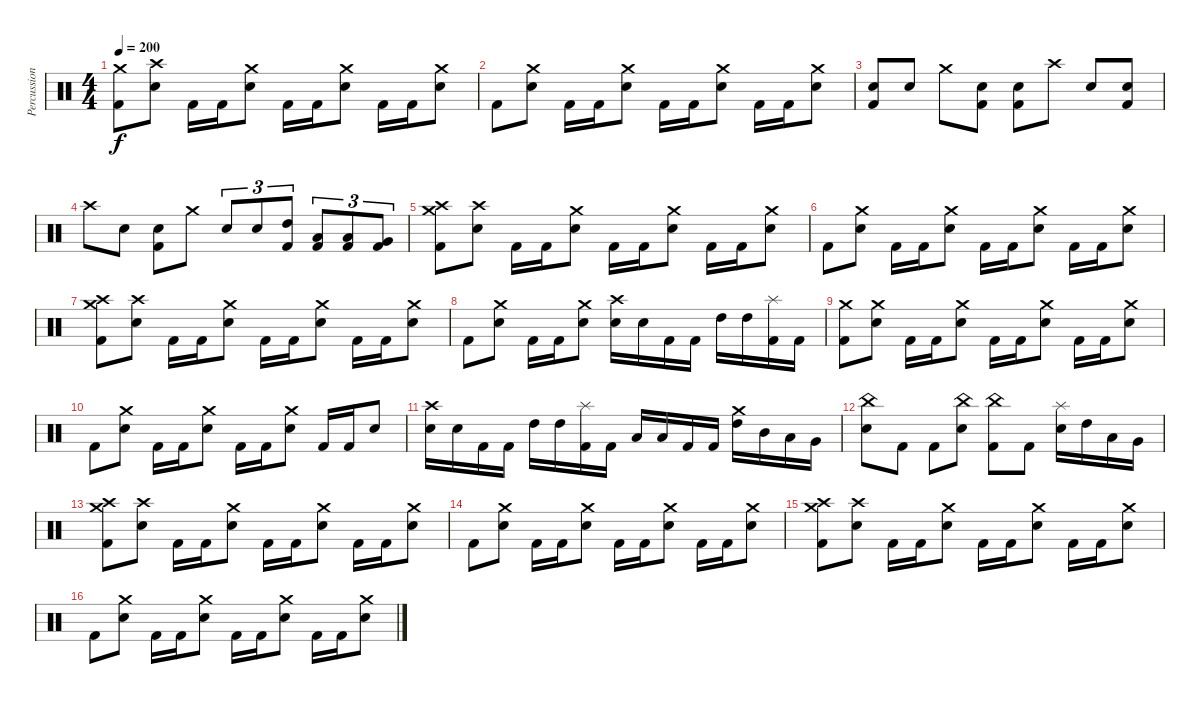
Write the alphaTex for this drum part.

\track ("Percussion" "Percussion") {instrument percussion}
\staff {score}
\articulation defaults
\ts (4 4)
\tempo 200
\clef neutral
\ks c
("Kick (hit) 2" "Crash medium (hit)").8{dy f} ("Electric Snare (hit)" "Crash high (hit)").8 "Kick (hit) 2".16 "Kick (hit) 2".16 ("Crash medium (hit)" "Electric Snare (hit)").8 "Kick (hit) 2".16 "Kick (hit) 2".16 ("Crash medium (hit)" "Electric Snare (hit)").8 "Kick (hit) 2".16 "Kick (hit) 2".16 ("Crash medium (hit)" "Electric Snare (hit)").8 |
"Kick (hit) 2".8 ("Electric Snare (hit)" "Crash medium (hit)").8 "Kick (hit) 2".16 "Kick (hit) 2".16 ("Crash medium (hit)" "Electric Snare (hit)").8 "Kick (hit) 2".16 "Kick (hit) 2".16 ("Crash medium (hit)" "Electric Snare (hit)").8 "Kick (hit) 2".16 "Kick (hit) 2".16 ("Crash medium (hit)" "Electric Snare (hit)").8 |
("Kick (hit) 2" "Electric Snare (hit)").8 "Electric Snare (hit)".8 "Crash medium (hit)".8 ("Kick (hit) 2" "Electric Snare (hit)").8 ("Kick (hit) 2" "Electric Snare (hit)").8 "Crash high (hit)".8 "Electric Snare (hit)".8 ("Kick (hit) 2" "Electric Snare (hit)").8 |
"Crash high (hit)".8 "Electric Snare (hit)".8 ("Kick (hit) 2" "Electric Snare (hit)").8 "Crash medium (hit)".8 "Electric Snare (hit)".8{tu (3 2)} "Electric Snare (hit)".8{tu (3 2)} ("Kick (hit) 2" "High Tom (hit)").8{tu (3 2)} ("Kick (hit) 2" "Low Tom (hit)").8{tu (3 2)} ("Kick (hit) 2" "Low Tom (hit)").8{tu (3 2)} ("Kick (hit) 2" "Very Low Tom (hit)").8{tu (3 2)} |
("Kick (hit) 2" "Crash medium (hit)" "Crash high (hit)").8 ("Electric Snare (hit)" "Crash high (hit)").8 "Kick (hit) 2".16 "Kick (hit) 2".16 ("Crash medium (hit)" "Electric Snare (hit)").8 "Kick (hit) 2".16 "Kick (hit) 2".16 ("Crash medium (hit)" "Electric Snare (hit)").8 "Kick (hit) 2".16 "Kick (hit) 2".16 ("Crash medium (hit)" "Electric Snare (hit)").8 |
"Kick (hit) 2".8 ("Electric Snare (hit)" "Crash medium (hit)").8 "Kick (hit) 2".16 "Kick (hit) 2".16 ("Crash medium (hit)" "Electric Snare (hit)").8 "Kick (hit) 2".16 "Kick (hit) 2".16 ("Crash medium (hit)" "Electric Snare (hit)").8 "Kick (hit) 2".16 "Kick (hit) 2".16 ("Crash medium (hit)" "Electric Snare (hit)").8 |
("Kick (hit) 2" "Crash medium (hit)" "Crash high (hit)").8 ("Electric Snare (hit)" "Crash high (hit)").8 "Kick (hit) 2".16 "Kick (hit) 2".16 ("Crash medium (hit)" "Electric Snare (hit)").8 "Kick (hit) 2".16 "Kick (hit) 2".16 ("Crash medium (hit)" "Electric Snare (hit)").8 "Kick (hit) 2".16 "Kick (hit) 2".16 ("Crash medium (hit)" "Electric Snare (hit)").8 |
"Kick (hit) 2".8 ("Electric Snare (hit)" "Crash medium (hit)").8 "Kick (hit) 2".16 "Kick (hit) 2".16 ("Crash medium (hit)" "Electric Snare (hit)").8 ("Electric Snare (hit)" "Crash high (hit)").16 "Electric Snare (hit)".16 "Kick (hit) 2".16 "Kick (hit) 2".16 "High Tom (hit)".16 "High Tom (hit)".16 ("Kick (hit) 2" "Splash (hit)").16 "Kick (hit) 2".16 |
("Kick (hit) 2" "Crash medium (hit)").8 ("Electric Snare (hit)" "Crash medium (hit)").8 "Kick (hit) 2".16 "Kick (hit) 2".16 ("Crash medium (hit)" "Electric Snare (hit)").8 "Kick (hit) 2".16 "Kick (hit) 2".16 ("Crash medium (hit)" "Electric Snare (hit)").8 "Kick (hit) 2".16 "Kick (hit) 2".16 ("Crash medium (hit)" "Electric Snare (hit)").8 |
"Kick (hit) 2".8 ("Electric Snare (hit)" "Crash medium (hit)").8 "Kick (hit) 2".16 "Kick (hit) 2".16 ("Crash medium (hit)" "Electric Snare (hit)").8 "Kick (hit) 2".16 "Kick (hit) 2".16 ("Crash medium (hit)" "Electric Snare (hit)").8 "Kick (hit) 2".16 "Kick (hit) 2".16 "Electric Snare (hit)".8 |
("Electric Snare (hit)" "Crash high (hit)").16 "Electric Snare (hit)".16 "Kick (hit) 2".16 "Kick (hit) 2".16 "High Tom (hit)".16 "High Tom (hit)".16 ("Kick (hit) 2" "Splash (hit)").16 "Kick (hit) 2".16 "Low Tom (hit)".16 "Low Tom (hit)".16 "Kick (hit) 2".16 "Kick (hit) 2".16 ("High Tom (hit)" "Crash medium (hit)").16 "Mid Tom (hit)".16 "Low Tom (hit)".16 "Very Low Tom (hit)".16 |
("Electric Snare (hit)" "China (hit)").8 "Kick (hit) 2".8 "Kick (hit) 2".8 ("Electric Snare (hit)" "China (hit)").8 ("Kick (hit) 2" "China (hit)").8 "Kick (hit) 2".8 ("Electric Snare (hit)" "Splash (hit)").16 "High Tom (hit)".16 "Low Tom (hit)".16 "Very Low Tom (hit)".16 |
("Kick (hit) 2" "Crash medium (hit)" "Crash high (hit)").8 ("Electric Snare (hit)" "Crash high (hit)").8 "Kick (hit) 2".16 "Kick (hit) 2".16 ("Crash medium (hit)" "Electric Snare (hit)").8 "Kick (hit) 2".16 "Kick (hit) 2".16 ("Crash medium (hit)" "Electric Snare (hit)").8 "Kick (hit) 2".16 "Kick (hit) 2".16 ("Crash medium (hit)" "Electric Snare (hit)").8 |
"Kick (hit) 2".8 ("Electric Snare (hit)" "Crash medium (hit)").8 "Kick (hit) 2".16 "Kick (hit) 2".16 ("Crash medium (hit)" "Electric Snare (hit)").8 "Kick (hit) 2".16 "Kick (hit) 2".16 ("Crash medium (hit)" "Electric Snare (hit)").8 "Kick (hit) 2".16 "Kick (hit) 2".16 ("Crash medium (hit)" "Electric Snare (hit)").8 |
("Kick (hit) 2" "Crash medium (hit)" "Crash high (hit)").8 ("Electric Snare (hit)" "Crash high (hit)").8 "Kick (hit) 2".16 "Kick (hit) 2".16 ("Crash medium (hit)" "Electric Snare (hit)").8 "Kick (hit) 2".16 "Kick (hit) 2".16 ("Crash medium (hit)" "Electric Snare (hit)").8 "Kick (hit) 2".16 "Kick (hit) 2".16 ("Crash medium (hit)" "Electric Snare (hit)").8 |
"Kick (hit) 2".8 ("Electric Snare (hit)" "Crash medium (hit)").8 "Kick (hit) 2".16 "Kick (hit) 2".16 ("Crash medium (hit)" "Electric Snare (hit)").8 "Kick (hit) 2".16 "Kick (hit) 2".16 ("Crash medium (hit)" "Electric Snare (hit)").8 "Kick (hit) 2".16 "Kick (hit) 2".16 ("Crash medium (hit)" "Electric Snare (hit)").8
